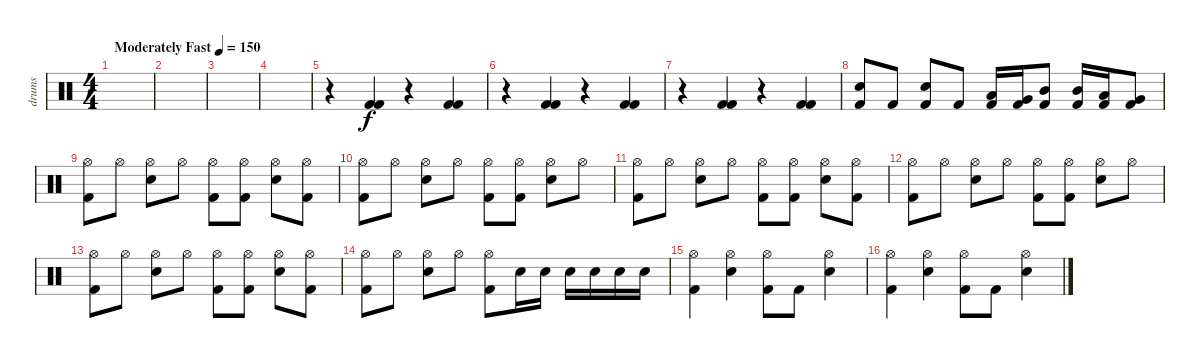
\track ("drums" "drums") {instrument percussion}
\staff {score}
\articulation defaults
\ts (4 4)
\tempo (150 "Moderately Fast")
\clef neutral
\ks c
|
|
|
|
r.4 ("Kick (hit) 2" "Kick (hit) 2").4 r.4 ("Kick (hit) 2" "Kick (hit) 2").4 |
r.4 ("Kick (hit) 2" "Kick (hit) 2").4 r.4 ("Kick (hit) 2" "Kick (hit) 2").4 |
r.4 ("Kick (hit) 2" "Kick (hit) 2").4 r.4 ("Kick (hit) 2" "Kick (hit) 2").4 |
("Snare (hit) 2" "Kick (hit) 2").8 "Kick (hit) 2".8 ("Snare (hit) 2" "Kick (hit) 2").8 "Kick (hit) 2".8 ("Low Tom (hit)" "Kick (hit) 2").16 ("Very Low Tom (hit)" "Kick (hit) 2").16 ("Mid Tom (hit)" "Kick (hit) 2").8 ("Mid Tom (hit)" "Kick (hit) 2").16 ("Low Tom (hit)" "Kick (hit) 2").16 ("Very Low Tom (hit)" "Kick (hit) 2").8 |
("Hi-Hat (open)" "Kick (hit) 2").8 "Hi-Hat (open)".8 ("Hi-Hat (open)" "Snare (hit) 2").8 "Hi-Hat (open)".8 ("Hi-Hat (open)" "Kick (hit) 2").8 ("Hi-Hat (open)" "Kick (hit) 2").8 ("Hi-Hat (open)" "Snare (hit) 2").8 ("Hi-Hat (open)" "Kick (hit) 2").8 |
("Hi-Hat (open)" "Kick (hit) 2").8 "Hi-Hat (open)".8 ("Hi-Hat (open)" "Snare (hit) 2").8 "Hi-Hat (open)".8 ("Hi-Hat (open)" "Kick (hit) 2").8 ("Hi-Hat (open)" "Kick (hit) 2").8 ("Hi-Hat (open)" "Snare (hit) 2").8 "Hi-Hat (open)".8 |
("Hi-Hat (open)" "Kick (hit) 2").8 "Hi-Hat (open)".8 ("Hi-Hat (open)" "Snare (hit) 2").8 "Hi-Hat (open)".8 ("Hi-Hat (open)" "Kick (hit) 2").8 ("Hi-Hat (open)" "Kick (hit) 2").8 ("Hi-Hat (open)" "Snare (hit) 2").8 ("Hi-Hat (open)" "Kick (hit) 2").8 |
("Hi-Hat (open)" "Kick (hit) 2").8 "Hi-Hat (open)".8 ("Hi-Hat (open)" "Snare (hit) 2").8 "Hi-Hat (open)".8 ("Hi-Hat (open)" "Kick (hit) 2").8 ("Hi-Hat (open)" "Kick (hit) 2").8 ("Hi-Hat (open)" "Snare (hit) 2").8 "Hi-Hat (open)".8 |
("Hi-Hat (open)" "Kick (hit) 2").8 "Hi-Hat (open)".8 ("Hi-Hat (open)" "Snare (hit) 2").8 "Hi-Hat (open)".8 ("Hi-Hat (open)" "Kick (hit) 2").8 ("Hi-Hat (open)" "Kick (hit) 2").8 ("Hi-Hat (open)" "Snare (hit) 2").8 ("Hi-Hat (open)" "Kick (hit) 2").8 |
("Hi-Hat (open)" "Kick (hit) 2").8 "Hi-Hat (open)".8 ("Hi-Hat (open)" "Snare (hit) 2").8 "Hi-Hat (open)".8 ("Hi-Hat (open)" "Kick (hit) 2").8 "Snare (hit) 2".16 "Snare (hit) 2".16 "Snare (hit) 2".16 "Snare (hit) 2".16 "Snare (hit) 2".16 "Snare (hit) 2".16 |
("Hi-Hat (open)" "Kick (hit) 2").4 ("Hi-Hat (open)" "Snare (hit) 2").4 ("Hi-Hat (open)" "Kick (hit) 2").8 "Kick (hit) 2".8 ("Hi-Hat (open)" "Snare (hit) 2").4 |
("Hi-Hat (open)" "Kick (hit) 2").4 ("Hi-Hat (open)" "Snare (hit) 2").4 ("Hi-Hat (open)" "Kick (hit) 2").8 "Kick (hit) 2".8 ("Hi-Hat (open)" "Snare (hit) 2").4
